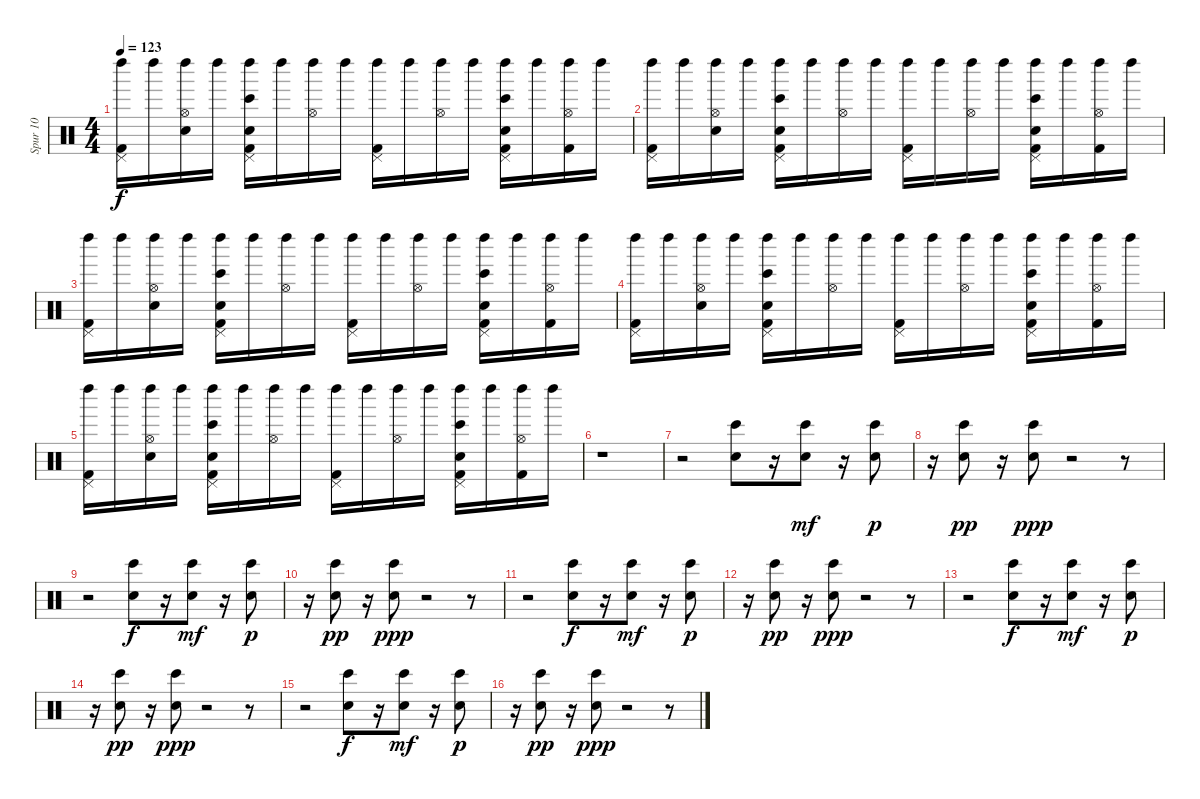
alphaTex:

\track ("Spur 10" "Spur 10") {instrument percussion}
\staff {score}
\articulation defaults
\ts (4 4)
\tempo 123
\clef neutral
\ks c
("Kick (hit) 2" "Left Maraca (hit)" "Pedal Hi-Hat (hit)").16{dy f} "Left Maraca (hit)".16 ("Electric Snare (hit)" "Left Maraca (hit)" "Hi-Hat (open)").16 "Left Maraca (hit)".16 ("Left Maraca (hit)" "Snare (hit) 2" "Bongo High (hit)" "Kick (hit) 2" "Pedal Hi-Hat (hit)").16 "Left Maraca (hit)".16 ("Left Maraca (hit)" "Hi-Hat (open)").16 "Left Maraca (hit)".16 ("Kick (hit) 2" "Left Maraca (hit)" "Pedal Hi-Hat (hit)").16 "Left Maraca (hit)".16 ("Left Maraca (hit)" "Hi-Hat (open)").16 "Left Maraca (hit)".16 ("Left Maraca (hit)" "Snare (hit) 2" "Kick (hit) 2" "Bongo High (hit)" "Pedal Hi-Hat (hit)").16 "Left Maraca (hit)".16 ("Left Maraca (hit)" "Kick (hit) 2" "Hi-Hat (open)").16 "Left Maraca (hit)".16 |
("Kick (hit) 2" "Left Maraca (hit)" "Pedal Hi-Hat (hit)").16 "Left Maraca (hit)".16 ("Electric Snare (hit)" "Left Maraca (hit)" "Hi-Hat (open)").16 "Left Maraca (hit)".16 ("Snare (hit) 2" "Kick (hit) 2" "Left Maraca (hit)" "Bongo High (hit)" "Pedal Hi-Hat (hit)").16 "Left Maraca (hit)".16 ("Left Maraca (hit)" "Hi-Hat (open)").16 "Left Maraca (hit)".16 ("Kick (hit) 2" "Left Maraca (hit)" "Pedal Hi-Hat (hit)").16 "Left Maraca (hit)".16 ("Left Maraca (hit)" "Hi-Hat (open)").16 "Left Maraca (hit)".16 ("Snare (hit) 2" "Kick (hit) 2" "Left Maraca (hit)" "Bongo High (hit)" "Pedal Hi-Hat (hit)").16 "Left Maraca (hit)".16 ("Left Maraca (hit)" "Kick (hit) 2" "Hi-Hat (open)").16 "Left Maraca (hit)".16 |
("Kick (hit) 2" "Left Maraca (hit)" "Pedal Hi-Hat (hit)").16 "Left Maraca (hit)".16 ("Electric Snare (hit)" "Left Maraca (hit)" "Hi-Hat (open)").16 "Left Maraca (hit)".16 ("Snare (hit) 2" "Bongo High (hit)" "Kick (hit) 2" "Left Maraca (hit)" "Pedal Hi-Hat (hit)").16 "Left Maraca (hit)".16 ("Left Maraca (hit)" "Hi-Hat (open)").16 "Left Maraca (hit)".16 ("Kick (hit) 2" "Left Maraca (hit)" "Pedal Hi-Hat (hit)").16 "Left Maraca (hit)".16 ("Left Maraca (hit)" "Hi-Hat (open)").16 "Left Maraca (hit)".16 ("Left Maraca (hit)" "Kick (hit) 2" "Snare (hit) 2" "Bongo High (hit)" "Pedal Hi-Hat (hit)").16 "Left Maraca (hit)".16 ("Left Maraca (hit)" "Kick (hit) 2" "Hi-Hat (open)").16 "Left Maraca (hit)".16 |
("Kick (hit) 2" "Left Maraca (hit)" "Pedal Hi-Hat (hit)").16 "Left Maraca (hit)".16 ("Electric Snare (hit)" "Left Maraca (hit)" "Hi-Hat (open)").16 "Left Maraca (hit)".16 ("Kick (hit) 2" "Snare (hit) 2" "Left Maraca (hit)" "Bongo High (hit)" "Pedal Hi-Hat (hit)").16 "Left Maraca (hit)".16 ("Left Maraca (hit)" "Hi-Hat (open)").16 "Left Maraca (hit)".16 ("Kick (hit) 2" "Left Maraca (hit)" "Pedal Hi-Hat (hit)").16 "Left Maraca (hit)".16 ("Left Maraca (hit)" "Hi-Hat (open)").16 "Left Maraca (hit)".16 ("Left Maraca (hit)" "Kick (hit) 2" "Snare (hit) 2" "Bongo High (hit)" "Pedal Hi-Hat (hit)").16 "Left Maraca (hit)".16 ("Left Maraca (hit)" "Kick (hit) 2" "Hi-Hat (open)").16 "Left Maraca (hit)".16 |
("Kick (hit) 2" "Left Maraca (hit)" "Pedal Hi-Hat (hit)").16 "Left Maraca (hit)".16 ("Electric Snare (hit)" "Left Maraca (hit)" "Hi-Hat (open)").16 "Left Maraca (hit)".16 ("Kick (hit) 2" "Bongo High (hit)" "Snare (hit) 2" "Left Maraca (hit)" "Pedal Hi-Hat (hit)").16 "Left Maraca (hit)".16 ("Left Maraca (hit)" "Hi-Hat (open)").16 "Left Maraca (hit)".16 ("Kick (hit) 2" "Left Maraca (hit)" "Pedal Hi-Hat (hit)").16 "Left Maraca (hit)".16 ("Left Maraca (hit)" "Hi-Hat (open)").16 "Left Maraca (hit)".16 ("Bongo High (hit)" "Kick (hit) 2" "Snare (hit) 2" "Left Maraca (hit)" "Pedal Hi-Hat (hit)").16 "Left Maraca (hit)".16 ("Kick (hit) 2" "Left Maraca (hit)" "Hi-Hat (open)").16 "Left Maraca (hit)".16 |
r.1 |
r.2 ("Hand Clap (hit)" "Bongo High (hit)").8 r.16 ("Hand Clap (hit)" "Bongo High (hit)").8{dy mf} r.16 ("Hand Clap (hit)" "Bongo High (hit)").8{dy p} |
r.16 ("Hand Clap (hit)" "Bongo High (hit)").8{dy pp} r.16 ("Hand Clap (hit)" "Bongo High (hit)").8{dy ppp} r.2 r.8 |
r.2 ("Hand Clap (hit)" "Bongo High (hit)").8{dy f} r.16 ("Hand Clap (hit)" "Bongo High (hit)").8{dy mf} r.16 ("Hand Clap (hit)" "Bongo High (hit)").8{dy p} |
r.16 ("Hand Clap (hit)" "Bongo High (hit)").8{dy pp} r.16 ("Hand Clap (hit)" "Bongo High (hit)").8{dy ppp} r.2 r.8 |
r.2 ("Hand Clap (hit)" "Bongo High (hit)").8{dy f} r.16 ("Hand Clap (hit)" "Bongo High (hit)").8{dy mf} r.16 ("Hand Clap (hit)" "Bongo High (hit)").8{dy p} |
r.16 ("Hand Clap (hit)" "Bongo High (hit)").8{dy pp} r.16 ("Hand Clap (hit)" "Bongo High (hit)").8{dy ppp} r.2 r.8 |
r.2 ("Hand Clap (hit)" "Bongo High (hit)").8{dy f} r.16 ("Hand Clap (hit)" "Bongo High (hit)").8{dy mf} r.16 ("Hand Clap (hit)" "Bongo High (hit)").8{dy p} |
r.16 ("Hand Clap (hit)" "Bongo High (hit)").8{dy pp} r.16 ("Hand Clap (hit)" "Bongo High (hit)").8{dy ppp} r.2 r.8 |
r.2 ("Hand Clap (hit)" "Bongo High (hit)").8{dy f} r.16 ("Hand Clap (hit)" "Bongo High (hit)").8{dy mf} r.16 ("Hand Clap (hit)" "Bongo High (hit)").8{dy p} |
r.16 ("Hand Clap (hit)" "Bongo High (hit)").8{dy pp} r.16 ("Hand Clap (hit)" "Bongo High (hit)").8{dy ppp} r.2 r.8
